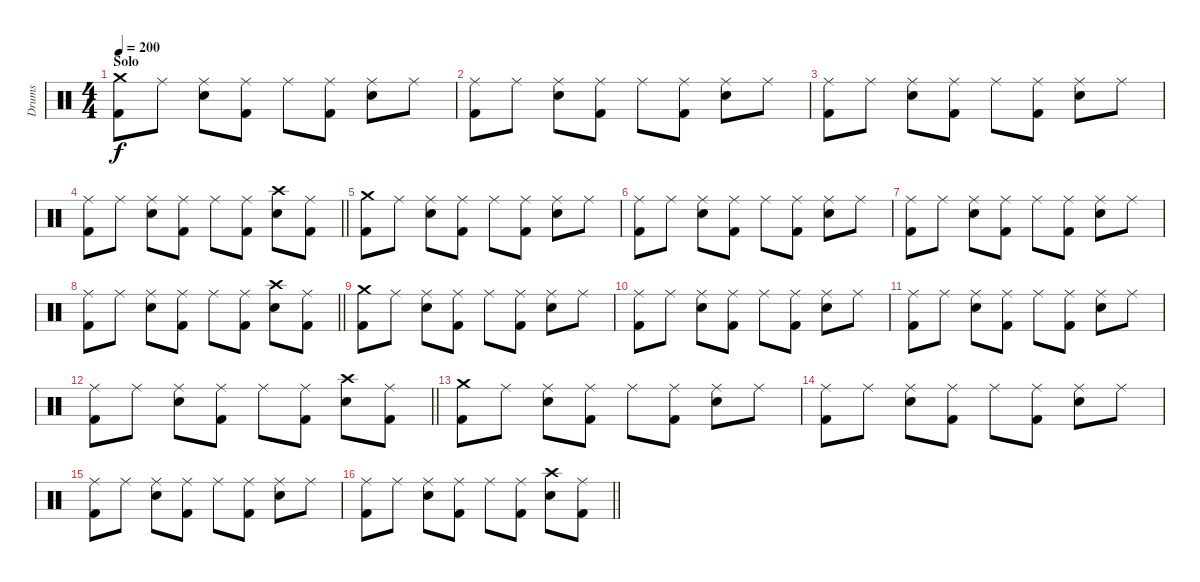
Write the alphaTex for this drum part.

\track ("Drums" "Drums") {instrument percussion}
\staff {score}
\articulation defaults
\ts (4 4)
\section ("" "Solo")
\tempo 200
\clef neutral
\ks c
("Crash medium (hit)" "Kick (hit) 2").8{dy f} "Ride (middle)".8 ("Ride (middle)" "Electric Snare (hit)").8 ("Ride (middle)" "Kick (hit) 2").8 "Ride (middle)".8 ("Ride (middle)" "Kick (hit) 2").8 ("Ride (middle)" "Electric Snare (hit)").8 "Ride (middle)".8 |
("Ride (middle)" "Kick (hit) 2").8 "Ride (middle)".8 ("Ride (middle)" "Electric Snare (hit)").8 ("Ride (middle)" "Kick (hit) 2").8 "Ride (middle)".8 ("Ride (middle)" "Kick (hit) 2").8 ("Ride (middle)" "Electric Snare (hit)").8 "Ride (middle)".8 |
("Ride (middle)" "Kick (hit) 2").8 "Ride (middle)".8 ("Ride (middle)" "Electric Snare (hit)").8 ("Ride (middle)" "Kick (hit) 2").8 "Ride (middle)".8 ("Ride (middle)" "Kick (hit) 2").8 ("Ride (middle)" "Electric Snare (hit)").8 "Ride (middle)".8 |
\barLineRight lightlight
("Ride (middle)" "Kick (hit) 2").8 "Ride (middle)".8 ("Ride (middle)" "Electric Snare (hit)").8 ("Ride (middle)" "Kick (hit) 2").8 "Ride (middle)".8 ("Ride (middle)" "Kick (hit) 2").8 ("Crash high (hit)" "Electric Snare (hit)").8 ("Ride (middle)" "Kick (hit) 2").8 |
("Crash medium (hit)" "Kick (hit) 2").8 "Ride (middle)".8 ("Ride (middle)" "Electric Snare (hit)").8 ("Ride (middle)" "Kick (hit) 2").8 "Ride (middle)".8 ("Ride (middle)" "Kick (hit) 2").8 ("Ride (middle)" "Electric Snare (hit)").8 "Ride (middle)".8 |
("Ride (middle)" "Kick (hit) 2").8 "Ride (middle)".8 ("Ride (middle)" "Electric Snare (hit)").8 ("Ride (middle)" "Kick (hit) 2").8 "Ride (middle)".8 ("Ride (middle)" "Kick (hit) 2").8 ("Ride (middle)" "Electric Snare (hit)").8 "Ride (middle)".8 |
("Ride (middle)" "Kick (hit) 2").8 "Ride (middle)".8 ("Ride (middle)" "Electric Snare (hit)").8 ("Ride (middle)" "Kick (hit) 2").8 "Ride (middle)".8 ("Ride (middle)" "Kick (hit) 2").8 ("Ride (middle)" "Electric Snare (hit)").8 "Ride (middle)".8 |
\barLineRight lightlight
("Ride (middle)" "Kick (hit) 2").8 "Ride (middle)".8 ("Ride (middle)" "Electric Snare (hit)").8 ("Ride (middle)" "Kick (hit) 2").8 "Ride (middle)".8 ("Ride (middle)" "Kick (hit) 2").8 ("Crash high (hit)" "Electric Snare (hit)").8 ("Ride (middle)" "Kick (hit) 2").8 |
("Crash medium (hit)" "Kick (hit) 2").8 "Ride (middle)".8 ("Ride (middle)" "Electric Snare (hit)").8 ("Ride (middle)" "Kick (hit) 2").8 "Ride (middle)".8 ("Ride (middle)" "Kick (hit) 2").8 ("Ride (middle)" "Electric Snare (hit)").8 "Ride (middle)".8 |
("Ride (middle)" "Kick (hit) 2").8 "Ride (middle)".8 ("Ride (middle)" "Electric Snare (hit)").8 ("Ride (middle)" "Kick (hit) 2").8 "Ride (middle)".8 ("Ride (middle)" "Kick (hit) 2").8 ("Ride (middle)" "Electric Snare (hit)").8 "Ride (middle)".8 |
("Ride (middle)" "Kick (hit) 2").8 "Ride (middle)".8 ("Ride (middle)" "Electric Snare (hit)").8 ("Ride (middle)" "Kick (hit) 2").8 "Ride (middle)".8 ("Ride (middle)" "Kick (hit) 2").8 ("Ride (middle)" "Electric Snare (hit)").8 "Ride (middle)".8 |
\barLineRight lightlight
("Ride (middle)" "Kick (hit) 2").8 "Ride (middle)".8 ("Ride (middle)" "Electric Snare (hit)").8 ("Ride (middle)" "Kick (hit) 2").8 "Ride (middle)".8 ("Ride (middle)" "Kick (hit) 2").8 ("Crash high (hit)" "Electric Snare (hit)").8 ("Ride (middle)" "Kick (hit) 2").8 |
("Crash medium (hit)" "Kick (hit) 2").8 "Ride (middle)".8 ("Ride (middle)" "Electric Snare (hit)").8 ("Ride (middle)" "Kick (hit) 2").8 "Ride (middle)".8 ("Ride (middle)" "Kick (hit) 2").8 ("Ride (middle)" "Electric Snare (hit)").8 "Ride (middle)".8 |
("Ride (middle)" "Kick (hit) 2").8 "Ride (middle)".8 ("Ride (middle)" "Electric Snare (hit)").8 ("Ride (middle)" "Kick (hit) 2").8 "Ride (middle)".8 ("Ride (middle)" "Kick (hit) 2").8 ("Ride (middle)" "Electric Snare (hit)").8 "Ride (middle)".8 |
("Ride (middle)" "Kick (hit) 2").8 "Ride (middle)".8 ("Ride (middle)" "Electric Snare (hit)").8 ("Ride (middle)" "Kick (hit) 2").8 "Ride (middle)".8 ("Ride (middle)" "Kick (hit) 2").8 ("Ride (middle)" "Electric Snare (hit)").8 "Ride (middle)".8 |
\barLineRight lightlight
("Ride (middle)" "Kick (hit) 2").8 "Ride (middle)".8 ("Ride (middle)" "Electric Snare (hit)").8 ("Ride (middle)" "Kick (hit) 2").8 "Ride (middle)".8 ("Ride (middle)" "Kick (hit) 2").8 ("Crash high (hit)" "Electric Snare (hit)").8 ("Ride (middle)" "Kick (hit) 2").8
